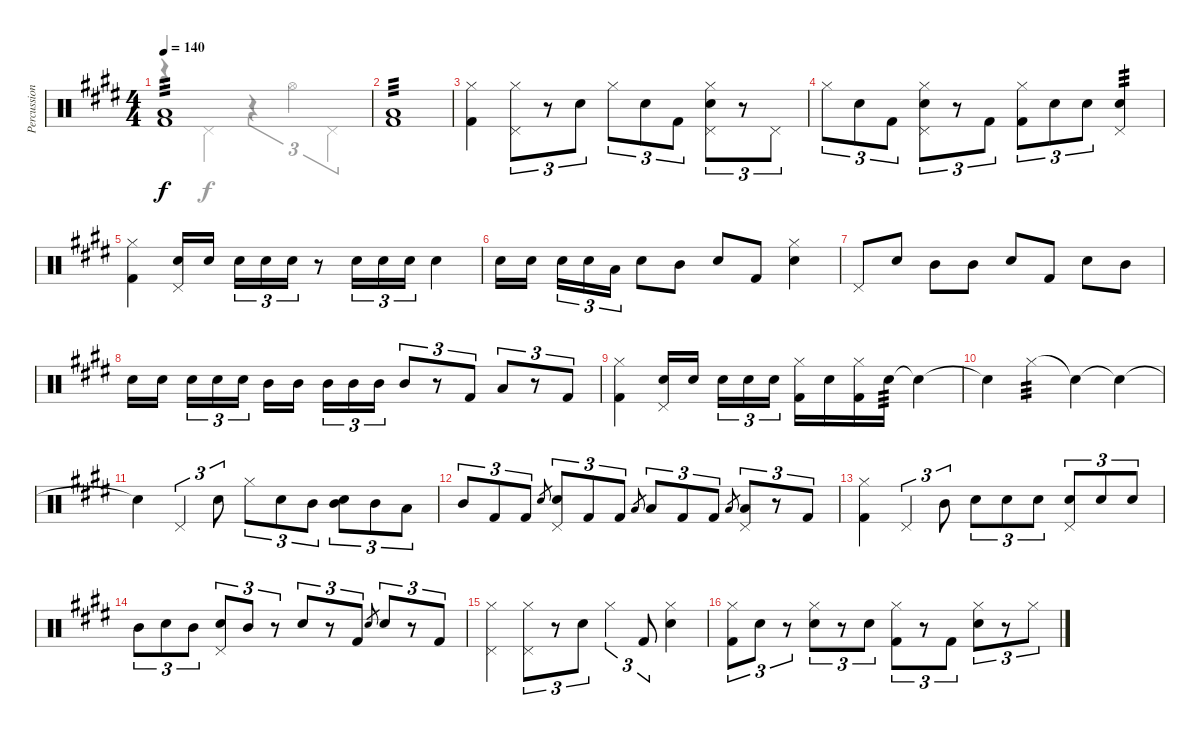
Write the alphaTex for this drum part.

\track ("Percussion" "Percussion") {instrument percussion}
\staff {score}
\articulation defaults
\voice
\ts (4 4)
\tempo 140
\clef neutral
\ks e
("Low Floor Tom (hit)" "Kick (hit) 2").1{tp 3 dy f} |
("Low Floor Tom (hit)" "Kick (hit) 2").1{tp 3} |
("Hi-Hat (closed)" "Kick (hit) 2").4 ("Hi-Hat (closed)" "Pedal Hi-Hat (hit)").8{tu (3 2)} r.8{tu (3 2)} "Snare (hit) 2".8{tu (3 2)} "Hi-Hat (closed)".8{tu (3 2)} "Snare (hit) 2".8{tu (3 2)} "Kick (hit) 2".8{tu (3 2)} ("Hi-Hat (closed)" "Snare (hit) 2" "Pedal Hi-Hat (hit)").8{tu (3 2)} r.8{tu (3 2)} "Pedal Hi-Hat (hit)".8{tu (3 2)} |
"Hi-Hat (closed)".8{tu (3 2)} "Snare (hit) 2".8{tu (3 2)} "Kick (hit) 2".8{tu (3 2)} ("Hi-Hat (closed)" "Snare (hit) 2" "Pedal Hi-Hat (hit)").8{tu (3 2)} r.8{tu (3 2)} "Kick (hit) 2".8{tu (3 2)} ("Hi-Hat (closed)" "Kick (hit) 2").8{tu (3 2)} "Snare (hit) 2".8{tu (3 2)} "Snare (hit) 2".8{tu (3 2)} ("Snare (hit) 2" "Pedal Hi-Hat (hit)").4{tp 3} |
("Hi-Hat (closed)" "Kick (hit) 2").4 ("Snare (hit) 2" "Pedal Hi-Hat (hit)").16 "Snare (hit) 2".16{beam splitsecondary} "Snare (hit) 2".16{tu (3 2)} "Snare (hit) 2".16{tu (3 2)} "Snare (hit) 2".16{tu (3 2)} r.8 "Snare (hit) 2".16{tu (3 2)} "Snare (hit) 2".16{tu (3 2)} "Snare (hit) 2".16{tu (3 2)} "Snare (hit) 2".4 |
"Snare (hit) 2".16 "Snare (hit) 2".16{beam splitsecondary} "Snare (hit) 2".16{tu (3 2)} "Snare (hit) 2".16{tu (3 2)} "Low Floor Tom (hit)".16{tu (3 2)} "Snare (hit) 2".8 "Mid Tom (hit)".8 "Snare (hit) 2".8 "Kick (hit) 2".8 ("Hi-Hat (closed)" "Snare (hit) 2").4 |
"Pedal Hi-Hat (hit)".8 "Snare (hit) 2".8 "Mid Tom (hit)".8 "Mid Tom (hit)".8 "Snare (hit) 2".8 "Kick (hit) 2".8 "Snare (hit) 2".8 "Mid Tom (hit)".8 |
"Snare (hit) 2".16 "Snare (hit) 2".16{beam splitsecondary} "Snare (hit) 2".16{tu (3 2)} "Snare (hit) 2".16{tu (3 2)} "Snare (hit) 2".16{tu (3 2)} "Mid Tom (hit)".16 "Mid Tom (hit)".16{beam splitsecondary} "Mid Tom (hit)".16{tu (3 2)} "Mid Tom (hit)".16{tu (3 2)} "Mid Tom (hit)".16{tu (3 2)} "Mid Tom (hit)".8{tu (3 2)} r.8{tu (3 2)} "Kick (hit) 2".8{tu (3 2)} "Low Floor Tom (hit)".8{tu (3 2)} r.8{tu (3 2)} "Kick (hit) 2".8{tu (3 2)} |
("Hi-Hat (closed)" "Kick (hit) 2").4 ("Snare (hit) 2" "Pedal Hi-Hat (hit)").16 "Snare (hit) 2".16{beam splitsecondary} "Snare (hit) 2".16{tu (3 2)} "Snare (hit) 2".16{tu (3 2)} "Snare (hit) 2".16{tu (3 2)} ("Hi-Hat (closed)" "Kick (hit) 2").16 "Snare (hit) 2".16 ("Hi-Hat (closed)" "Kick (hit) 2").16 "Snare (hit) 2".16{tp 3} "Snare (hit)"{t}.4 |
"Snare (hit)"{t}.4 "Hi-Hat (closed)".4{tp 3} "Snare (hit)"{t}.4 "Snare (hit)"{t}.4 |
"Snare (hit)"{t}.4 "Pedal Hi-Hat (hit)".4{tu (3 2)} "Snare (hit) 2".8{tu (3 2)} "Hi-Hat (closed)".8{tu (3 2)} "Snare (hit) 2".8{tu (3 2)} "Mid Tom (hit)".8{tu (3 2)} ("Mid Tom (hit)" "Snare (hit) 2").8{tu (3 2)} "Mid Tom (hit)".8{tu (3 2)} "Low Tom (hit)".8{tu (3 2)} |
"Mid Tom (hit)".8{tu (3 2)} "Kick (hit) 2".8{tu (3 2)} "Kick (hit) 2".8{tu (3 2)} "Snare (hit) 2".8{gr} ("Snare (hit) 2" "Pedal Hi-Hat (hit)").8{tu (3 2)} "Kick (hit) 2".8{tu (3 2)} "Kick (hit) 2".8{tu (3 2)} "Low Floor Tom (hit)".8{gr} "Low Floor Tom (hit)".8{tu (3 2)} "Kick (hit) 2".8{tu (3 2)} "Kick (hit) 2".8{tu (3 2)} "Low Floor Tom (hit)".8{gr} ("Low Floor Tom (hit)" "Pedal Hi-Hat (hit)").8{tu (3 2)} r.8{tu (3 2)} "Kick (hit) 2".8{tu (3 2)} |
("Hi-Hat (closed)" "Kick (hit) 2").4 "Pedal Hi-Hat (hit)".4{tu (3 2)} "Mid Tom (hit)".8{tu (3 2)} "Snare (hit) 2".8{tu (3 2)} "Snare (hit) 2".8{tu (3 2)} "Snare (hit) 2".8{tu (3 2)} ("Snare (hit) 2" "Pedal Hi-Hat (hit)").8{tu (3 2)} "Snare (hit) 2".8{tu (3 2)} "Snare (hit) 2".8{tu (3 2)} |
"Mid Tom (hit)".8{tu (3 2)} "Snare (hit) 2".8{tu (3 2)} "Mid Tom (hit)".8{tu (3 2)} ("Snare (hit) 2" "Pedal Hi-Hat (hit)").8{tu (3 2)} "Mid Tom (hit)".8{tu (3 2)} r.8{tu (3 2)} "Snare (hit) 2".8{tu (3 2)} r.8{tu (3 2)} "Kick (hit) 2".8{tu (3 2)} "Snare (hit) 2".8{gr} "Snare (hit) 2".8{tu (3 2)} r.8{tu (3 2)} "Kick (hit) 2".8{tu (3 2)} |
("Hi-Hat (closed)" "Pedal Hi-Hat (hit)").4 ("Hi-Hat (closed)" "Pedal Hi-Hat (hit)").8{tu (3 2)} r.8{tu (3 2)} "Snare (hit) 2".8{tu (3 2)} "Hi-Hat (closed)".4{tu (3 2)} "Kick (hit) 2".8{tu (3 2)} ("Hi-Hat (closed)" "Snare (hit) 2").4 |
("Hi-Hat (closed)" "Kick (hit) 2").8{tu (3 2)} "Snare (hit) 2".8{tu (3 2)} r.8{tu (3 2)} ("Hi-Hat (closed)" "Snare (hit) 2").8{tu (3 2)} r.8{tu (3 2)} "Snare (hit) 2".8{tu (3 2)} ("Hi-Hat (closed)" "Kick (hit) 2").8{tu (3 2)} r.8{tu (3 2)} "Kick (hit) 2".8{tu (3 2)} ("Hi-Hat (closed)" "Snare (hit) 2").8{tu (3 2)} r.8{tu (3 2)} "Hi-Hat (closed)".8{tu (3 2)}
\voice
\clef neutral
\ottava regular
\simile none
\ks e
r.4{dy f} "Pedal Hi-Hat (hit)".4 r.4{tu (3 2)} "Hi-Hat (open)".4{tu (3 2)} "Pedal Hi-Hat (hit)".4{tu (3 2)} |
|
|
|
|
|
|
|
|
|
|
|
|
|
|
